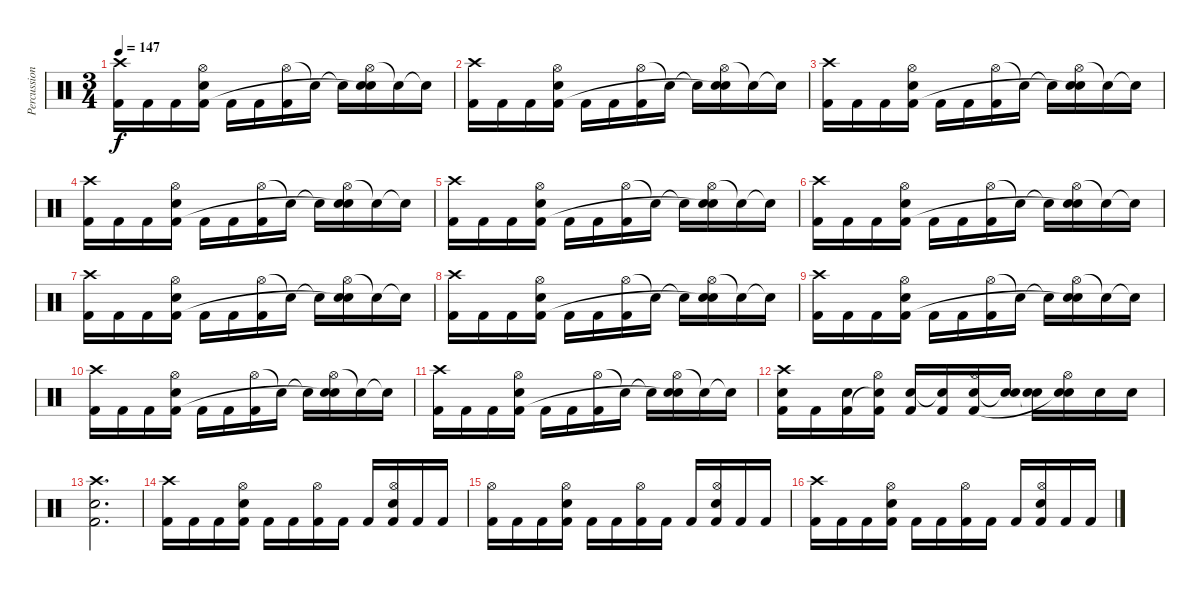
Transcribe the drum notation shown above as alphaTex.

\track ("Percussion" "Percussion") {instrument percussion}
\staff {score}
\articulation defaults
\ts (3 4)
\tempo 147
\clef neutral
\ks c
("Crash high (hit)" "Kick (hit) 2").16{dy f} "Kick (hit) 2".16 "Kick (hit) 2".16 ("Hi-Hat (open)" "Electric Snare (hit)" "Kick (hit) 2").16 "Kick (hit) 2".16 "Kick (hit) 2".16 ("Hi-Hat (open)" "Kick (hit) 2").16 "Snare (hit)"{t}.16 "Snare (hit)"{t}.16 ("Hi-Hat (open)" "Electric Snare (hit)" "Snare (hit)"{t}).16 "Electric Snare (hit)"{t}.16 "Snare (hit)"{t}.16 |
("Crash high (hit)" "Kick (hit) 2").16 "Kick (hit) 2".16 "Kick (hit) 2".16 ("Hi-Hat (open)" "Electric Snare (hit)" "Kick (hit) 2").16 "Kick (hit) 2".16 "Kick (hit) 2".16 ("Hi-Hat (open)" "Kick (hit) 2").16 "Snare (hit)"{t}.16 "Snare (hit)"{t}.16 ("Hi-Hat (open)" "Electric Snare (hit)" "Snare (hit)"{t}).16 "Electric Snare (hit)"{t}.16 "Snare (hit)"{t}.16 |
("Crash high (hit)" "Kick (hit) 2").16 "Kick (hit) 2".16 "Kick (hit) 2".16 ("Hi-Hat (open)" "Electric Snare (hit)" "Kick (hit) 2").16 "Kick (hit) 2".16 "Kick (hit) 2".16 ("Hi-Hat (open)" "Kick (hit) 2").16 "Snare (hit)"{t}.16 "Snare (hit)"{t}.16 ("Hi-Hat (open)" "Electric Snare (hit)" "Snare (hit)"{t}).16 "Electric Snare (hit)"{t}.16 "Snare (hit)"{t}.16 |
("Crash high (hit)" "Kick (hit) 2").16 "Kick (hit) 2".16 "Kick (hit) 2".16 ("Hi-Hat (open)" "Electric Snare (hit)" "Kick (hit) 2").16 "Kick (hit) 2".16 "Kick (hit) 2".16 ("Hi-Hat (open)" "Kick (hit) 2").16 "Snare (hit)"{t}.16 "Snare (hit)"{t}.16 ("Hi-Hat (open)" "Electric Snare (hit)" "Snare (hit)"{t}).16 "Electric Snare (hit)"{t}.16 "Snare (hit)"{t}.16 |
("Crash high (hit)" "Kick (hit) 2").16 "Kick (hit) 2".16 "Kick (hit) 2".16 ("Hi-Hat (open)" "Electric Snare (hit)" "Kick (hit) 2").16 "Kick (hit) 2".16 "Kick (hit) 2".16 ("Hi-Hat (open)" "Kick (hit) 2").16 "Snare (hit)"{t}.16 "Snare (hit)"{t}.16 ("Hi-Hat (open)" "Electric Snare (hit)" "Snare (hit)"{t}).16 "Electric Snare (hit)"{t}.16 "Snare (hit)"{t}.16 |
("Crash high (hit)" "Kick (hit) 2").16 "Kick (hit) 2".16 "Kick (hit) 2".16 ("Hi-Hat (open)" "Electric Snare (hit)" "Kick (hit) 2").16 "Kick (hit) 2".16 "Kick (hit) 2".16 ("Hi-Hat (open)" "Kick (hit) 2").16 "Snare (hit)"{t}.16 "Snare (hit)"{t}.16 ("Hi-Hat (open)" "Electric Snare (hit)" "Snare (hit)"{t}).16 "Electric Snare (hit)"{t}.16 "Snare (hit)"{t}.16 |
("Crash high (hit)" "Kick (hit) 2").16 "Kick (hit) 2".16 "Kick (hit) 2".16 ("Hi-Hat (open)" "Electric Snare (hit)" "Kick (hit) 2").16 "Kick (hit) 2".16 "Kick (hit) 2".16 ("Hi-Hat (open)" "Kick (hit) 2").16 "Snare (hit)"{t}.16 "Snare (hit)"{t}.16 ("Hi-Hat (open)" "Electric Snare (hit)" "Snare (hit)"{t}).16 "Electric Snare (hit)"{t}.16 "Snare (hit)"{t}.16 |
("Crash high (hit)" "Kick (hit) 2").16 "Kick (hit) 2".16 "Kick (hit) 2".16 ("Hi-Hat (open)" "Electric Snare (hit)" "Kick (hit) 2").16 "Kick (hit) 2".16 "Kick (hit) 2".16 ("Hi-Hat (open)" "Kick (hit) 2").16 "Snare (hit)"{t}.16 "Snare (hit)"{t}.16 ("Hi-Hat (open)" "Electric Snare (hit)" "Snare (hit)"{t}).16 "Electric Snare (hit)"{t}.16 "Snare (hit)"{t}.16 |
("Crash high (hit)" "Kick (hit) 2").16 "Kick (hit) 2".16 "Kick (hit) 2".16 ("Hi-Hat (open)" "Electric Snare (hit)" "Kick (hit) 2").16 "Kick (hit) 2".16 "Kick (hit) 2".16 ("Hi-Hat (open)" "Kick (hit) 2").16 "Snare (hit)"{t}.16 "Snare (hit)"{t}.16 ("Hi-Hat (open)" "Electric Snare (hit)" "Snare (hit)"{t}).16 "Electric Snare (hit)"{t}.16 "Snare (hit)"{t}.16 |
("Crash high (hit)" "Kick (hit) 2").16 "Kick (hit) 2".16 "Kick (hit) 2".16 ("Hi-Hat (open)" "Electric Snare (hit)" "Kick (hit) 2").16 "Kick (hit) 2".16 "Kick (hit) 2".16 ("Hi-Hat (open)" "Kick (hit) 2").16 "Snare (hit)"{t}.16 "Snare (hit)"{t}.16 ("Hi-Hat (open)" "Electric Snare (hit)" "Snare (hit)"{t}).16 "Electric Snare (hit)"{t}.16 "Snare (hit)"{t}.16 |
("Crash high (hit)" "Kick (hit) 2").16 "Kick (hit) 2".16 "Kick (hit) 2".16 ("Hi-Hat (open)" "Electric Snare (hit)" "Kick (hit) 2").16 "Kick (hit) 2".16 "Kick (hit) 2".16 ("Hi-Hat (open)" "Kick (hit) 2").16 "Snare (hit)"{t}.16 "Snare (hit)"{t}.16 ("Hi-Hat (open)" "Electric Snare (hit)" "Snare (hit)"{t}).16 "Electric Snare (hit)"{t}.16 "Snare (hit)"{t}.16 |
("Crash high (hit)" "Electric Snare (hit)" "Kick (hit) 2").16 "Kick (hit) 2".16 ("Electric Snare (hit)" "Kick (hit) 2").16 ("Hi-Hat (open)" "Electric Snare (hit)"{t} "Kick (hit) 2").16 ("Electric Snare (hit)" "Kick (hit) 2").16 ("Electric Snare (hit)"{t} "Kick (hit) 2").16 ("Hi-Hat (open)" "Electric Snare (hit)" "Kick (hit) 2").16 ("Electric Snare (hit)" "Snare (hit)"{t}).16 ("Electric Snare (hit)" "Snare (hit)"{t}).16 ("Hi-Hat (open)" "Electric Snare (hit)" "Snare (hit)"{t}).16 "Electric Snare (hit)".16 "Electric Snare (hit)".16 |
("Crash high (hit)" "Electric Snare (hit)" "Kick (hit) 2").2{d} |
("Crash high (hit)" "Kick (hit) 2").16 "Kick (hit) 2".16 "Kick (hit) 2".16 ("Hi-Hat (open)" "Electric Snare (hit)" "Kick (hit) 2").16 "Kick (hit) 2".16 "Kick (hit) 2".16 ("Hi-Hat (open)" "Kick (hit) 2").16 "Kick (hit) 2".16 "Kick (hit) 2".16 ("Hi-Hat (open)" "Electric Snare (hit)" "Kick (hit) 2").16 "Kick (hit) 2".16 "Kick (hit) 2".16 |
("Hi-Hat (open)" "Kick (hit) 2").16 "Kick (hit) 2".16 "Kick (hit) 2".16 ("Hi-Hat (open)" "Electric Snare (hit)" "Kick (hit) 2").16 "Kick (hit) 2".16 "Kick (hit) 2".16 ("Hi-Hat (open)" "Kick (hit) 2").16 "Kick (hit) 2".16 "Kick (hit) 2".16 ("Hi-Hat (open)" "Electric Snare (hit)" "Kick (hit) 2").16 "Kick (hit) 2".16 "Kick (hit) 2".16 |
("Crash high (hit)" "Kick (hit) 2").16 "Kick (hit) 2".16 "Kick (hit) 2".16 ("Hi-Hat (open)" "Electric Snare (hit)" "Kick (hit) 2").16 "Kick (hit) 2".16 "Kick (hit) 2".16 ("Hi-Hat (open)" "Kick (hit) 2").16 "Kick (hit) 2".16 "Kick (hit) 2".16 ("Hi-Hat (open)" "Electric Snare (hit)" "Kick (hit) 2").16 "Kick (hit) 2".16 "Kick (hit) 2".16
